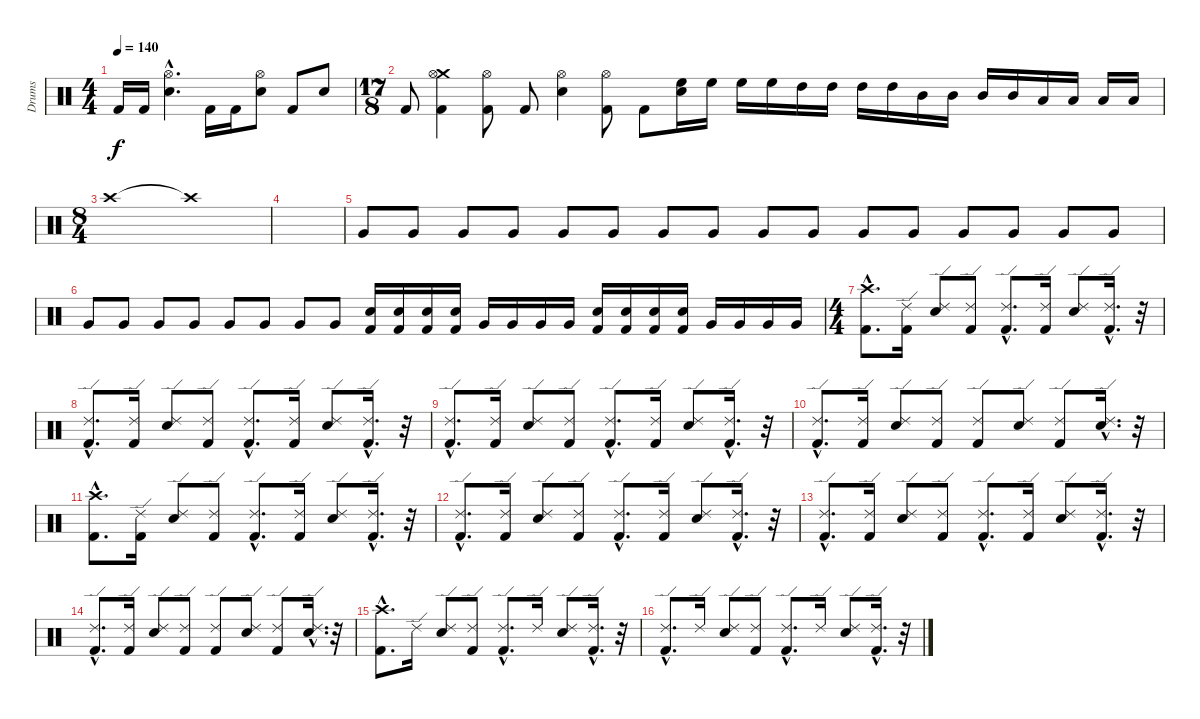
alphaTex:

\track ("Drums" "Drums") {instrument percussion}
\staff {score}
\articulation defaults
\ts (4 4)
\tempo 140
\clef neutral
\ks c "Kick (hit) 2".16{dy f} "Kick (hit) 2".16
("Hi-Hat (open)"{hac} "Snare (hit) 2"{hac}).4{d} "Kick (hit) 2".16 "Kick (hit) 2".16 ("Hi-Hat (open)" "Snare (hit) 2").8 "Kick (hit) 2".8 "Snare (hit) 2".8 |
\ts (17 8)
"Kick (hit) 2".8 ("Crash medium (hit)" "Hi-Hat (open)" "Kick (hit) 2").4 ("Hi-Hat (open)" "Kick (hit) 2").8 "Kick (hit) 2".8 ("Hi-Hat (open)" "Snare (hit) 2").4 ("Hi-Hat (open)" "Kick (hit) 2").8 "Kick (hit) 2".8 ("High Floor Tom (hit)" "Snare (hit) 2").16 "High Floor Tom (hit)".16 "High Floor Tom (hit)".16 "High Floor Tom (hit)".16 "High Tom (hit)".16 "High Tom (hit)".16 "High Tom (hit)".16 "High Tom (hit)".16 "Mid Tom (hit)".16 "Mid Tom (hit)".16 "Mid Tom (hit)".16 "Mid Tom (hit)".16 "Low Tom (hit)".16 "Low Tom (hit)".16 "Low Tom (hit)".16 "Low Tom (hit)".16 |
\ts (8 4)
"Crash high (hit)".1 "Crash high (hit)"{t}.1 |
|
"Very Low Tom (hit)".8 "Very Low Tom (hit)".8 "Very Low Tom (hit)".8 "Very Low Tom (hit)".8 "Very Low Tom (hit)".8 "Very Low Tom (hit)".8 "Very Low Tom (hit)".8 "Very Low Tom (hit)".8 "Very Low Tom (hit)".8 "Very Low Tom (hit)".8 "Very Low Tom (hit)".8 "Very Low Tom (hit)".8 "Very Low Tom (hit)".8 "Very Low Tom (hit)".8 "Very Low Tom (hit)".8 "Very Low Tom (hit)".8 |
"Very Low Tom (hit)".8 "Very Low Tom (hit)".8 "Very Low Tom (hit)".8 "Very Low Tom (hit)".8 "Very Low Tom (hit)".8 "Very Low Tom (hit)".8 "Very Low Tom (hit)".8 "Very Low Tom (hit)".8 ("Snare (hit) 2" "Kick (hit) 2").16 ("Snare (hit) 2" "Kick (hit) 2").16 ("Snare (hit) 2" "Kick (hit) 2").16 ("Snare (hit) 2" "Kick (hit) 2").16 "Very Low Tom (hit)".16 "Very Low Tom (hit)".16 "Very Low Tom (hit)".16 "Very Low Tom (hit)".16 ("Snare (hit) 2" "Kick (hit) 2").16 ("Snare (hit) 2" "Kick (hit) 2").16 ("Snare (hit) 2" "Kick (hit) 2").16 ("Snare (hit) 2" "Kick (hit) 2").16 "Very Low Tom (hit)".16 "Very Low Tom (hit)".16 "Very Low Tom (hit)".16 "Very Low Tom (hit)".16 |
\ts (4 4)
("Crash high (hit)"{hac} "Kick (hit) 2"{hac}).8{d} ("Ride (edge) 2" "Kick (hit) 2").16 ("Ride (edge) 2" "Snare (hit) 2").8 ("Ride (edge) 2" "Kick (hit) 2").8 ("Ride (edge) 2"{hac} "Kick (hit) 2"{hac}).8{d} ("Ride (edge) 2" "Kick (hit) 2").16 ("Ride (edge) 2" "Snare (hit) 2").8 ("Ride (edge) 2"{hac} "Kick (hit) 2"{hac}).16{d} r.32 |
("Ride (edge) 2"{hac} "Kick (hit) 2"{hac}).8{d} ("Ride (edge) 2" "Kick (hit) 2").16 ("Ride (edge) 2" "Snare (hit) 2").8 ("Ride (edge) 2" "Kick (hit) 2").8 ("Ride (edge) 2"{hac} "Kick (hit) 2"{hac}).8{d} ("Ride (edge) 2" "Kick (hit) 2").16 ("Ride (edge) 2" "Snare (hit) 2").8 ("Ride (edge) 2"{hac} "Kick (hit) 2"{hac}).16{d} r.32 |
("Ride (edge) 2"{hac} "Kick (hit) 2"{hac}).8{d} ("Ride (edge) 2" "Kick (hit) 2").16 ("Ride (edge) 2" "Snare (hit) 2").8 ("Ride (edge) 2" "Kick (hit) 2").8 ("Ride (edge) 2"{hac} "Kick (hit) 2"{hac}).8{d} ("Ride (edge) 2" "Kick (hit) 2").16 ("Ride (edge) 2" "Snare (hit) 2").8 ("Ride (edge) 2"{hac} "Kick (hit) 2"{hac}).16{d} r.32 |
("Ride (edge) 2"{hac} "Kick (hit) 2"{hac}).8{d} ("Ride (edge) 2" "Kick (hit) 2").16 ("Ride (edge) 2" "Snare (hit) 2").8 ("Ride (edge) 2" "Kick (hit) 2").8 ("Ride (edge) 2" "Kick (hit) 2").8 ("Ride (edge) 2" "Snare (hit) 2").8 ("Ride (edge) 2" "Kick (hit) 2").8 ("Ride (edge) 2"{hac} "Snare (hit) 2"{hac}).16{d} r.32 |
("Crash high (hit)"{hac} "Kick (hit) 2"{hac}).8{d} ("Ride (edge) 2" "Kick (hit) 2").16 ("Ride (edge) 2" "Snare (hit) 2").8 ("Ride (edge) 2" "Kick (hit) 2").8 ("Ride (edge) 2"{hac} "Kick (hit) 2"{hac}).8{d} ("Ride (edge) 2" "Kick (hit) 2").16 ("Ride (edge) 2" "Snare (hit) 2").8 ("Ride (edge) 2"{hac} "Kick (hit) 2"{hac}).16{d} r.32 |
("Ride (edge) 2"{hac} "Kick (hit) 2"{hac}).8{d} ("Ride (edge) 2" "Kick (hit) 2").16 ("Ride (edge) 2" "Snare (hit) 2").8 ("Ride (edge) 2" "Kick (hit) 2").8 ("Ride (edge) 2"{hac} "Kick (hit) 2"{hac}).8{d} ("Ride (edge) 2" "Kick (hit) 2").16 ("Ride (edge) 2" "Snare (hit) 2").8 ("Ride (edge) 2"{hac} "Kick (hit) 2"{hac}).16{d} r.32 |
("Ride (edge) 2"{hac} "Kick (hit) 2"{hac}).8{d} ("Ride (edge) 2" "Kick (hit) 2").16 ("Ride (edge) 2" "Snare (hit) 2").8 ("Ride (edge) 2" "Kick (hit) 2").8 ("Ride (edge) 2"{hac} "Kick (hit) 2"{hac}).8{d} ("Ride (edge) 2" "Kick (hit) 2").16 ("Ride (edge) 2" "Snare (hit) 2").8 ("Ride (edge) 2"{hac} "Kick (hit) 2"{hac}).16{d} r.32 |
("Ride (edge) 2"{hac} "Kick (hit) 2"{hac}).8{d} ("Ride (edge) 2" "Kick (hit) 2").16 ("Ride (edge) 2" "Snare (hit) 2").8 ("Ride (edge) 2" "Kick (hit) 2").8 ("Ride (edge) 2" "Kick (hit) 2").8 ("Ride (edge) 2" "Snare (hit) 2").8 ("Ride (edge) 2" "Kick (hit) 2").8 ("Ride (edge) 2"{hac} "Snare (hit) 2"{hac}).16{d} r.32 |
("Crash high (hit)"{hac} "Kick (hit) 2"{hac}).8{d} "Ride (edge) 2".16 ("Ride (edge) 2" "Snare (hit) 2").8 ("Ride (edge) 2" "Kick (hit) 2").8 ("Ride (edge) 2"{hac} "Kick (hit) 2"{hac}).8{d} "Ride (edge) 2".16 ("Ride (edge) 2" "Snare (hit) 2").8 ("Ride (edge) 2"{hac} "Kick (hit) 2"{hac}).16{d} r.32 |
("Ride (edge) 2"{hac} "Kick (hit) 2"{hac}).8{d} "Ride (edge) 2".16 ("Ride (edge) 2" "Snare (hit) 2").8 ("Ride (edge) 2" "Kick (hit) 2").8 ("Ride (edge) 2"{hac} "Kick (hit) 2"{hac}).8{d} "Ride (edge) 2".16 ("Ride (edge) 2" "Snare (hit) 2").8 ("Ride (edge) 2"{hac} "Kick (hit) 2"{hac}).16{d} r.32
